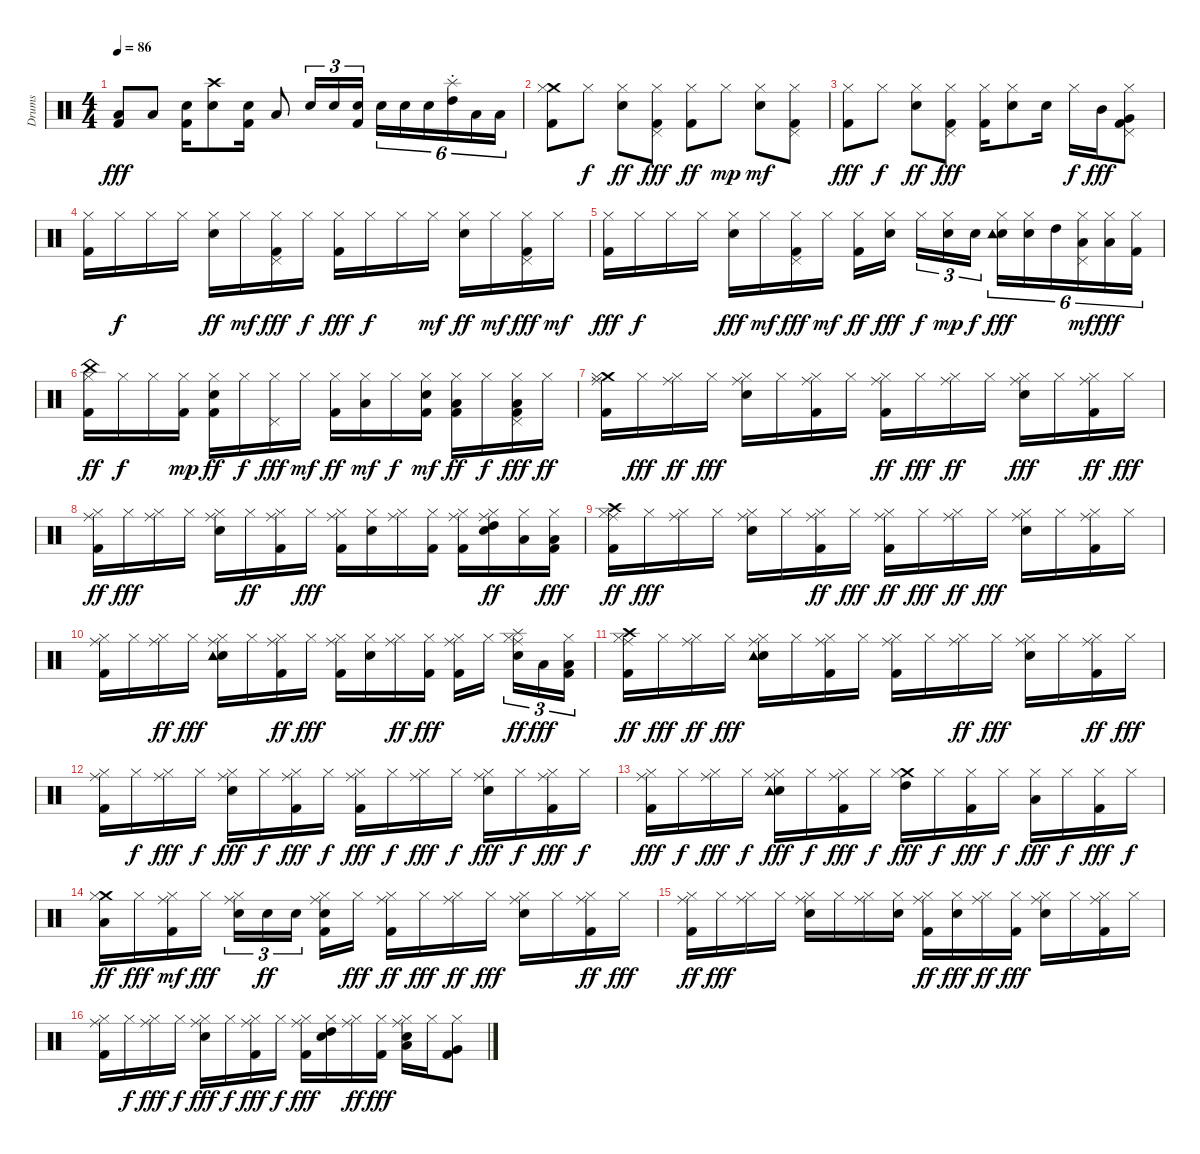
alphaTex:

\track ("Drums" "Drums") {instrument percussion}
\staff {score}
\articulation defaults
\ts (4 4)
\tempo 86
\clef neutral
\ks c
("Kick (hit) 2" "Low Floor Tom (hit)").8{dy fff} "Low Floor Tom (hit)".8 ("Snare (hit) 2" "Kick (hit) 2").16 ("Snare (hit) 2" "Crash high (hit)").8 ("Snare (hit) 2" "Kick (hit) 2").16 "Low Floor Tom (hit)".8 "Snare (hit) 2".16{tu (3 2)} "Snare (hit) 2".16{tu (3 2)} ("Snare (hit) 2" "Kick (hit) 2").16{tu (3 2)} "Snare (hit) 2".16{tu (6 4)} "Snare (hit) 2".16{tu (6 4)} "Snare (hit) 2".16{tu (6 4)} ("Splash (choke)" "High Tom (hit)").16{tu (6 4)} "Low Tom (hit)".16{tu (6 4)} "Low Floor Tom (hit)".16{tu (6 4)} |
("Kick (hit) 2" "Crash medium (hit)" "Hi-Hat (closed)").8 "Hi-Hat (closed)".8{dy f} ("Snare (hit) 2" "Hi-Hat (closed)").8{dy ff} ("Kick (hit) 2" "Pedal Hi-Hat (hit)" "Hi-Hat (closed)").8{dy fff} ("Kick (hit) 2" "Hi-Hat (closed)").8{dy ff} "Hi-Hat (closed)".8{dy mp} ("Snare (hit) 2" "Hi-Hat (closed)").8{dy mf} ("Kick (hit) 2" "Pedal Hi-Hat (hit)" "Hi-Hat (closed)").8 |
("Kick (hit) 2" "Hi-Hat (closed)").8{dy fff} "Hi-Hat (closed)".8{dy f} ("Snare (hit) 2" "Hi-Hat (closed)").8{dy ff} ("Kick (hit) 2" "Pedal Hi-Hat (hit)" "Hi-Hat (closed)").8{dy fff} ("Kick (hit) 2" "Hi-Hat (closed)").16 ("Snare (hit) 2" "Hi-Hat (closed)").8 "Snare (hit) 2".16 "Hi-Hat (closed)".16{dy f} "Mid Tom (hit)".16{dy fff} ("Kick (hit) 2" "Very Low Tom (hit)" "Pedal Hi-Hat (hit)" "Hi-Hat (closed)").8 |
("Kick (hit) 2" "Hi-Hat (closed)").16 "Hi-Hat (closed)".16{dy f} "Hi-Hat (closed)".16 "Hi-Hat (closed)".16 ("Snare (hit) 2" "Hi-Hat (closed)").16{dy ff} "Hi-Hat (closed)".16{dy mf} ("Kick (hit) 2" "Pedal Hi-Hat (hit)" "Hi-Hat (closed)").16{dy fff} "Hi-Hat (closed)".16{dy f} ("Kick (hit) 2" "Hi-Hat (closed)").16{dy fff} "Hi-Hat (closed)".16{dy f} "Hi-Hat (closed)".16 "Hi-Hat (closed)".16{dy mf} ("Snare (hit) 2" "Hi-Hat (closed)").16{dy ff} "Hi-Hat (closed)".16{dy mf} ("Kick (hit) 2" "Pedal Hi-Hat (hit)" "Hi-Hat (closed)").16{dy fff} "Hi-Hat (closed)".16{dy mf} |
("Kick (hit) 2" "Hi-Hat (closed)").16{dy fff} "Hi-Hat (closed)".16{dy f} "Hi-Hat (closed)".16 "Hi-Hat (closed)".16 ("Snare (hit) 2" "Hi-Hat (closed)").16{dy fff} "Hi-Hat (closed)".16{dy mf} ("Kick (hit) 2" "Pedal Hi-Hat (hit)" "Hi-Hat (closed)").16{dy fff} "Hi-Hat (closed)".16{dy mf} ("Kick (hit) 2" "Hi-Hat (closed)").16{dy ff} ("Snare (hit) 2" "Hi-Hat (closed)").16{dy fff} "Hi-Hat (closed)".16{tu (3 2) dy f} ("Snare (hit) 2" "Hi-Hat (closed)").16{tu (3 2) dy mp} "Snare (hit) 2".16{tu (3 2) dy f} ("Snare (hit) 2" "Tambourine (hit)" "Hi-Hat (closed)").16{tu (6 4) dy fff} ("Snare (hit) 2" "Hi-Hat (closed)").16{tu (6 4)} "High Tom (hit)".16{tu (6 4)} ("Low Tom (hit)" "Pedal Hi-Hat (hit)" "Hi-Hat (closed)").16{tu (6 4) dy mf} ("Low Floor Tom (hit)" "Hi-Hat (closed)").16{tu (6 4) dy fff} ("Kick (hit) 2" "Hi-Hat (closed)").16{tu (6 4)} |
("Kick (hit) 2" "China (hit)" "Hi-Hat (closed)").16{dy ff} "Hi-Hat (closed)".16{dy f} "Hi-Hat (closed)".16 ("Kick (hit) 2" "Hi-Hat (closed)").16{dy mp} ("Snare (hit) 2" "Kick (hit) 2" "Hi-Hat (closed)").16{dy ff} "Hi-Hat (closed)".16{dy f} ("Pedal Hi-Hat (hit)" "Hi-Hat (closed)").16{dy fff} "Hi-Hat (closed)".16{dy mf} ("Kick (hit) 2" "Hi-Hat (closed)").16{dy ff} ("Low Floor Tom (hit)" "Hi-Hat (closed)").16{dy mf} "Hi-Hat (closed)".16{dy f} ("Kick (hit) 2" "Snare (hit) 2" "Hi-Hat (closed)").16{dy mf} ("Kick (hit) 2" "Low Tom (hit)" "Hi-Hat (closed)").16{dy ff} "Hi-Hat (closed)".16{dy f} ("Kick (hit) 2" "Low Floor Tom (hit)" "Pedal Hi-Hat (hit)" "Hi-Hat (closed)").16{dy fff} "Hi-Hat (closed)".16{dy ff} |
("Kick (hit) 2" "Ride (middle)" "Crash medium (hit)" "Hi-Hat (closed)").16 "Hi-Hat (closed)".16{dy fff} ("Ride (middle)" "Hi-Hat (closed)").16{dy ff} "Hi-Hat (closed)".16{dy fff} ("Snare (hit) 2" "Ride (middle)" "Hi-Hat (closed)").16 "Hi-Hat (closed)".16 ("Kick (hit) 2" "Ride (middle)" "Hi-Hat (closed)").16 "Hi-Hat (closed)".16 ("Kick (hit) 2" "Ride (middle)" "Hi-Hat (closed)").16{dy ff} "Hi-Hat (closed)".16{dy fff} ("Ride (middle)" "Hi-Hat (closed)").16{dy ff} "Hi-Hat (closed)".16 ("Snare (hit) 2" "Ride (middle)" "Hi-Hat (closed)").16{dy fff} "Hi-Hat (closed)".16 ("Kick (hit) 2" "Ride (middle)" "Hi-Hat (closed)").16{dy ff} "Hi-Hat (closed)".16{dy fff} |
("Kick (hit) 2" "Ride (middle)" "Hi-Hat (closed)").16{dy ff} "Hi-Hat (closed)".16{dy fff} ("Ride (middle)" "Hi-Hat (closed)").16 "Hi-Hat (closed)".16 ("Snare (hit) 2" "Ride (middle)" "Hi-Hat (closed)").16 "Hi-Hat (closed)".16{dy ff} ("Kick (hit) 2" "Ride (middle)" "Hi-Hat (closed)").16 "Hi-Hat (closed)".16{dy fff} ("Kick (hit) 2" "Ride (middle)" "Hi-Hat (closed)").16 ("Snare (hit) 2" "Hi-Hat (closed)").16 ("Ride (middle)" "Hi-Hat (closed)").16 ("Kick (hit) 2" "Hi-Hat (closed)").16 ("Kick (hit) 2" "Ride (middle)" "Hi-Hat (closed)").16 ("Snare (hit) 2" "Ride (middle)" "High Tom (hit)" "Hi-Hat (closed)").16{dy ff} ("Low Tom (hit)" "Hi-Hat (closed)").16 ("Low Floor Tom (hit)" "Kick (hit) 2" "Hi-Hat (closed)").16{dy fff} |
("Kick (hit) 2" "Ride (middle)" "Crash high (hit)" "Hi-Hat (closed)").16{dy ff} "Hi-Hat (closed)".16{dy fff} ("Ride (middle)" "Hi-Hat (closed)").16 "Hi-Hat (closed)".16 ("Snare (hit) 2" "Ride (middle)" "Hi-Hat (closed)").16 "Hi-Hat (closed)".16 ("Kick (hit) 2" "Ride (middle)" "Hi-Hat (closed)").16{dy ff} "Hi-Hat (closed)".16{dy fff} ("Kick (hit) 2" "Ride (middle)" "Hi-Hat (closed)").16{dy ff} "Hi-Hat (closed)".16{dy fff} ("Ride (middle)" "Hi-Hat (closed)").16{dy ff} "Hi-Hat (closed)".16{dy fff} ("Snare (hit) 2" "Ride (middle)" "Hi-Hat (closed)").16 "Hi-Hat (closed)".16 ("Kick (hit) 2" "Ride (middle)" "Hi-Hat (closed)").16 "Hi-Hat (closed)".16 |
("Kick (hit) 2" "Ride (middle)" "Hi-Hat (closed)").16 "Hi-Hat (closed)".16 ("Ride (middle)" "Hi-Hat (closed)").16{dy ff} "Hi-Hat (closed)".16{dy fff} ("Snare (hit) 2" "Ride (middle)" "Tambourine (hit)" "Hi-Hat (closed)").16 "Hi-Hat (closed)".16 ("Kick (hit) 2" "Ride (middle)" "Hi-Hat (closed)").16{dy ff} "Hi-Hat (closed)".16{dy fff} ("Kick (hit) 2" "Ride (middle)" "Hi-Hat (closed)").16 ("Snare (hit) 2" "Hi-Hat (closed)").16 ("Ride (middle)" "Hi-Hat (closed)").16{dy ff} ("Kick (hit) 2" "Hi-Hat (closed)").16{dy fff} ("Kick (hit) 2" "Ride (middle)" "Hi-Hat (closed)").16 "Hi-Hat (closed)".16 ("Snare (hit) 2" "Ride (middle)" "Splash (hit)" "Hi-Hat (closed)").16{tu (3 2) dy ff} "Low Tom (hit)".16{tu (3 2) dy fff} ("Low Floor Tom (hit)" "Kick (hit) 2" "Hi-Hat (closed)").16{tu (3 2)} |
("Kick (hit) 2" "Ride (middle)" "Crash high (hit)" "Hi-Hat (closed)").16{dy ff} "Hi-Hat (closed)".16{dy fff} ("Ride (middle)" "Hi-Hat (closed)").16{dy ff} "Hi-Hat (closed)".16{dy fff} ("Snare (hit) 2" "Ride (middle)" "Tambourine (hit)" "Hi-Hat (closed)").16 "Hi-Hat (closed)".16 ("Kick (hit) 2" "Ride (middle)" "Hi-Hat (closed)").16 "Hi-Hat (closed)".16 ("Kick (hit) 2" "Ride (middle)" "Hi-Hat (closed)").16 "Hi-Hat (closed)".16 ("Ride (middle)" "Hi-Hat (closed)").16{dy ff} "Hi-Hat (closed)".16{dy fff} ("Snare (hit) 2" "Ride (middle)" "Hi-Hat (closed)").16 "Hi-Hat (closed)".16 ("Kick (hit) 2" "Ride (middle)" "Hi-Hat (closed)").16{dy ff} "Hi-Hat (closed)".16{dy fff} |
("Kick (hit) 2" "Ride (middle)" "Hi-Hat (closed)").16 "Hi-Hat (closed)".16{dy f} ("Ride (middle)" "Hi-Hat (closed)").16{dy fff} "Hi-Hat (closed)".16{dy f} ("Snare (hit) 2" "Ride (middle)" "Hi-Hat (closed)").16{dy fff} "Hi-Hat (closed)".16{dy f} ("Kick (hit) 2" "Ride (middle)" "Hi-Hat (closed)").16{dy fff} "Hi-Hat (closed)".16{dy f} ("Kick (hit) 2" "Ride (middle)" "Hi-Hat (closed)").16{dy fff} "Hi-Hat (closed)".16{dy f} ("Ride (middle)" "Hi-Hat (closed)").16{dy fff} "Hi-Hat (closed)".16{dy f} ("Snare (hit) 2" "Ride (middle)" "Hi-Hat (closed)").16{dy fff} "Hi-Hat (closed)".16{dy f} ("Kick (hit) 2" "Ride (middle)" "Hi-Hat (closed)").16{dy fff} "Hi-Hat (closed)".16{dy f} |
("Kick (hit) 2" "Ride (middle)" "Hi-Hat (closed)").16{dy fff} "Hi-Hat (closed)".16{dy f} ("Ride (middle)" "Hi-Hat (closed)").16{dy fff} "Hi-Hat (closed)".16{dy f} ("Snare (hit) 2" "Ride (middle)" "Tambourine (hit)" "Hi-Hat (closed)").16{dy fff} "Hi-Hat (closed)".16{dy f} ("Kick (hit) 2" "Ride (middle)" "Hi-Hat (closed)").16{dy fff} "Hi-Hat (closed)".16{dy f} ("High Tom (hit)" "Crash medium (hit)" "Hi-Hat (closed)").16{dy fff} "Hi-Hat (closed)".16{dy f} ("Kick (hit) 2" "Hi-Hat (closed)").16{dy fff} "Hi-Hat (closed)".16{dy f} ("Low Tom (hit)" "Hi-Hat (closed)").16{dy fff} "Hi-Hat (closed)".16{dy f} ("Kick (hit) 2" "Hi-Hat (closed)").16{dy fff} "Hi-Hat (closed)".16{dy f} |
("Low Floor Tom (hit)" "Crash medium (hit)" "Hi-Hat (closed)").16{dy ff} "Hi-Hat (closed)".16{dy fff} ("Kick (hit) 2" "Ride (middle)" "Hi-Hat (closed)").16{dy mf} "Hi-Hat (closed)".16{dy fff} ("Snare (hit) 2" "Ride (middle)" "Hi-Hat (closed)").16{tu (3 2)} "Snare (hit) 2".16{tu (3 2) dy ff} "Snare (hit) 2".16{tu (3 2)} ("Snare (hit) 2" "Ride (middle)" "Kick (hit) 2" "Hi-Hat (closed)").16 "Hi-Hat (closed)".16{dy fff} ("Kick (hit) 2" "Ride (middle)" "Hi-Hat (closed)").16{dy ff} "Hi-Hat (closed)".16{dy fff} ("Ride (middle)" "Hi-Hat (closed)").16{dy ff} "Hi-Hat (closed)".16{dy fff} ("Snare (hit) 2" "Ride (middle)" "Hi-Hat (closed)").16 "Hi-Hat (closed)".16 ("Kick (hit) 2" "Ride (middle)" "Hi-Hat (closed)").16{dy ff} "Hi-Hat (closed)".16{dy fff} |
("Kick (hit) 2" "Ride (middle)" "Hi-Hat (closed)").16{dy ff} "Hi-Hat (closed)".16{dy fff} ("Ride (middle)" "Hi-Hat (closed)").16 "Hi-Hat (closed)".16 ("Snare (hit) 2" "Ride (middle)" "Hi-Hat (closed)").16 "Hi-Hat (closed)".16 ("Ride (middle)" "Hi-Hat (closed)").16 ("Snare (hit) 2" "Hi-Hat (closed)").16 ("Kick (hit) 2" "Ride (middle)" "Hi-Hat (closed)").16{dy ff} ("Snare (hit) 2" "Hi-Hat (closed)").16{dy fff} ("Ride (middle)" "Hi-Hat (closed)").16{dy ff} ("Kick (hit) 2" "Hi-Hat (closed)").16{dy fff} ("Snare (hit) 2" "Ride (middle)" "Hi-Hat (closed)").16 "Hi-Hat (closed)".16 ("Kick (hit) 2" "Ride (middle)" "Hi-Hat (closed)").16 "Hi-Hat (closed)".16 |
("Kick (hit) 2" "Ride (middle)" "Hi-Hat (closed)").16 "Hi-Hat (closed)".16{dy f} ("Ride (middle)" "Hi-Hat (closed)").16{dy fff} "Hi-Hat (closed)".16{dy f} ("Snare (hit) 2" "Ride (middle)" "Hi-Hat (closed)").16{dy fff} "Hi-Hat (closed)".16{dy f} ("Kick (hit) 2" "Ride (middle)" "Hi-Hat (closed)").16{dy fff} "Hi-Hat (closed)".16{dy f} ("Kick (hit) 2" "Ride (middle)" "Hi-Hat (closed)").16{dy fff} ("Snare (hit) 2" "High Tom (hit)" "Hi-Hat (closed)").16 ("Ride (middle)" "Hi-Hat (closed)").16{dy ff} ("Kick (hit) 2" "Hi-Hat (closed)").16{dy fff} ("Snare (hit) 2" "Ride (middle)" "Low Tom (hit)" "Hi-Hat (closed)").16 "Hi-Hat (closed)".16 ("Kick (hit) 2" "Very Low Tom (hit)" "Hi-Hat (closed)").8
